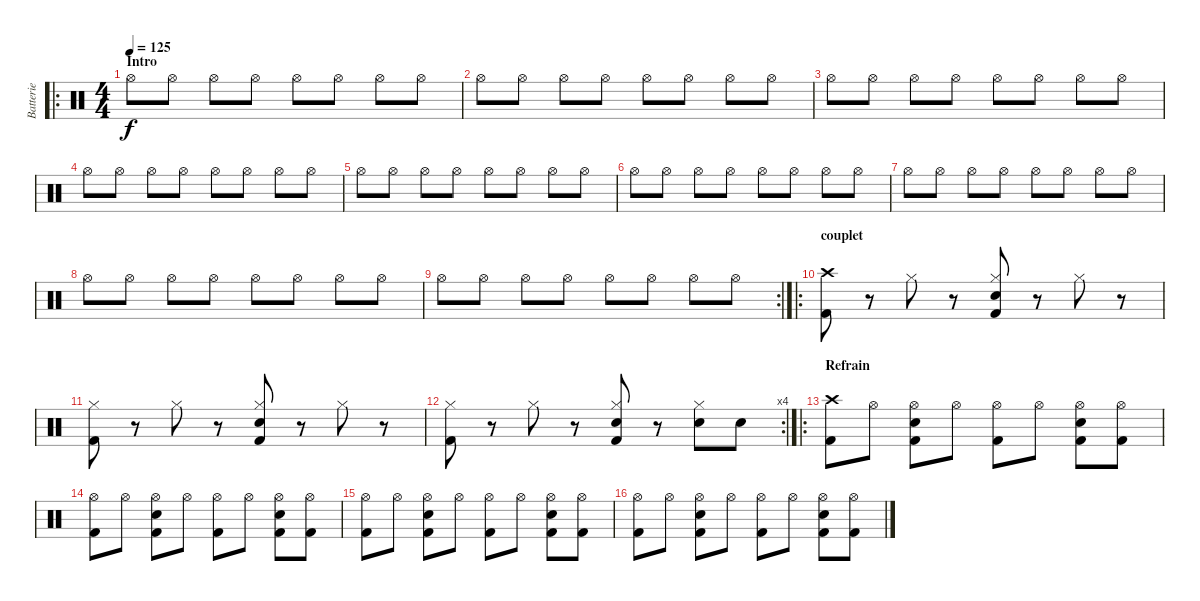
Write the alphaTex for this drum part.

\track ("Batterie" "Batterie") {instrument percussion}
\staff {score}
\articulation defaults
\ro
\ts (4 4)
\section ("" "Intro")
\tempo 125
\clef neutral
\ks c "Hi-Hat (open)".8{dy f} "Hi-Hat (open)".8 "Hi-Hat (open)".8 "Hi-Hat (open)".8 "Hi-Hat (open)".8 "Hi-Hat (open)".8 "Hi-Hat (open)".8 "Hi-Hat (open)".8
|
"Hi-Hat (open)".8 "Hi-Hat (open)".8 "Hi-Hat (open)".8 "Hi-Hat (open)".8 "Hi-Hat (open)".8 "Hi-Hat (open)".8 "Hi-Hat (open)".8 "Hi-Hat (open)".8 |
"Hi-Hat (open)".8 "Hi-Hat (open)".8 "Hi-Hat (open)".8 "Hi-Hat (open)".8 "Hi-Hat (open)".8 "Hi-Hat (open)".8 "Hi-Hat (open)".8 "Hi-Hat (open)".8 |
"Hi-Hat (open)".8 "Hi-Hat (open)".8 "Hi-Hat (open)".8 "Hi-Hat (open)".8 "Hi-Hat (open)".8 "Hi-Hat (open)".8 "Hi-Hat (open)".8 "Hi-Hat (open)".8 |
"Hi-Hat (open)".8 "Hi-Hat (open)".8 "Hi-Hat (open)".8 "Hi-Hat (open)".8 "Hi-Hat (open)".8 "Hi-Hat (open)".8 "Hi-Hat (open)".8 "Hi-Hat (open)".8 |
"Hi-Hat (open)".8 "Hi-Hat (open)".8 "Hi-Hat (open)".8 "Hi-Hat (open)".8 "Hi-Hat (open)".8 "Hi-Hat (open)".8 "Hi-Hat (open)".8 "Hi-Hat (open)".8 |
"Hi-Hat (open)".8 "Hi-Hat (open)".8 "Hi-Hat (open)".8 "Hi-Hat (open)".8 "Hi-Hat (open)".8 "Hi-Hat (open)".8 "Hi-Hat (open)".8 "Hi-Hat (open)".8 |
"Hi-Hat (open)".8 "Hi-Hat (open)".8 "Hi-Hat (open)".8 "Hi-Hat (open)".8 "Hi-Hat (open)".8 "Hi-Hat (open)".8 "Hi-Hat (open)".8 "Hi-Hat (open)".8 |
\rc 2 "Hi-Hat (open)".8 "Hi-Hat (open)".8 "Hi-Hat (open)".8 "Hi-Hat (open)".8 "Hi-Hat (open)".8 "Hi-Hat (open)".8 "Hi-Hat (open)".8 "Hi-Hat (open)".8
|
\ro
\section ("" "couplet")
("Kick (hit) 2" "Crash high (hit)").8 r.8 "Hi-Hat (closed)".8 r.8 ("Hi-Hat (closed)" "Kick (hit) 2" "Electric Snare (hit)").8 r.8 "Hi-Hat (closed)".8 r.8 |
("Hi-Hat (closed)" "Kick (hit) 2").8 r.8 "Hi-Hat (closed)".8 r.8 ("Hi-Hat (closed)" "Kick (hit) 2" "Electric Snare (hit)").8 r.8 "Hi-Hat (closed)".8 r.8 |
\rc 4
("Hi-Hat (closed)" "Kick (hit) 2").8 r.8 "Hi-Hat (closed)".8 r.8 ("Hi-Hat (closed)" "Kick (hit) 2" "Electric Snare (hit)").8 r.8 ("Hi-Hat (closed)" "Electric Snare (hit)").8 "Electric Snare (hit)".8 |
\ro
\section ("" "Refrain")
("Kick (hit) 2" "Crash high (hit)").8 "Hi-Hat (open)".8 ("Hi-Hat (open)" "Kick (hit) 2" "Electric Snare (hit)").8 "Hi-Hat (open)".8 ("Hi-Hat (open)" "Kick (hit) 2").8 "Hi-Hat (open)".8 ("Hi-Hat (open)" "Kick (hit) 2" "Electric Snare (hit)").8 ("Hi-Hat (open)" "Kick (hit) 2").8 |
("Hi-Hat (open)" "Kick (hit) 2").8 "Hi-Hat (open)".8 ("Hi-Hat (open)" "Kick (hit) 2" "Electric Snare (hit)").8 "Hi-Hat (open)".8 ("Hi-Hat (open)" "Kick (hit) 2").8 "Hi-Hat (open)".8 ("Hi-Hat (open)" "Kick (hit) 2" "Electric Snare (hit)").8 ("Hi-Hat (open)" "Kick (hit) 2").8 |
("Hi-Hat (open)" "Kick (hit) 2").8 "Hi-Hat (open)".8 ("Hi-Hat (open)" "Kick (hit) 2" "Electric Snare (hit)").8 "Hi-Hat (open)".8 ("Hi-Hat (open)" "Kick (hit) 2").8 "Hi-Hat (open)".8 ("Hi-Hat (open)" "Kick (hit) 2" "Electric Snare (hit)").8 ("Hi-Hat (open)" "Kick (hit) 2").8 |
("Hi-Hat (open)" "Kick (hit) 2").8 "Hi-Hat (open)".8 ("Hi-Hat (open)" "Kick (hit) 2" "Electric Snare (hit)").8 "Hi-Hat (open)".8 ("Hi-Hat (open)" "Kick (hit) 2").8 "Hi-Hat (open)".8 ("Hi-Hat (open)" "Kick (hit) 2" "Electric Snare (hit)").8 ("Hi-Hat (open)" "Kick (hit) 2").8
